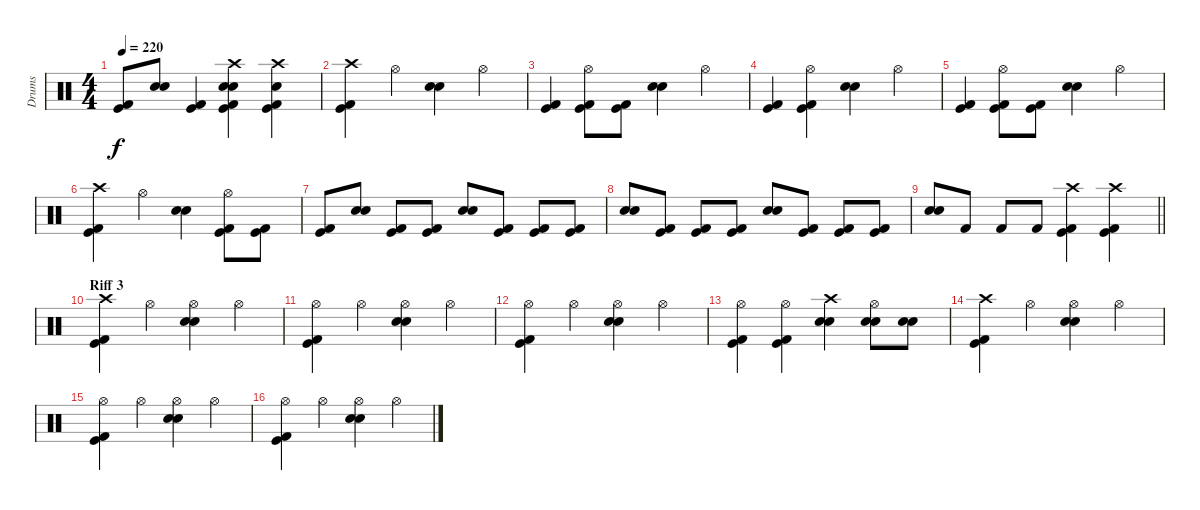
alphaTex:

\track ("Drums" "Drums") {instrument percussion}
\staff {score}
\articulation defaults
\ts (4 4)
\tempo 220
\clef neutral
\ks c
("Kick (hit) 2" "Kick (hit)").8{dy f} ("Electric Snare (hit)" "Snare (hit) 2").8 ("Kick (hit) 2" "Kick (hit)").4 ("Crash high (hit)" "Snare (hit) 2" "Electric Snare (hit)" "Kick (hit) 2" "Kick (hit)").4 ("Crash high (hit)" "Snare (hit) 2" "Kick (hit) 2" "Kick (hit)").4 |
("Crash high (hit)" "Kick (hit) 2" "Kick (hit)").4 "Hi-Hat (open)".4 ("Electric Snare (hit)" "Snare (hit) 2").4 "Hi-Hat (open)".4 |
("Kick (hit) 2" "Kick (hit)").4 ("Hi-Hat (open)" "Kick (hit) 2" "Kick (hit)").8 ("Kick (hit) 2" "Kick (hit)").8 ("Electric Snare (hit)" "Snare (hit) 2").4 "Hi-Hat (open)".4 |
("Kick (hit) 2" "Kick (hit)").4 ("Hi-Hat (open)" "Kick (hit) 2" "Kick (hit)").4 ("Electric Snare (hit)" "Snare (hit) 2").4 "Hi-Hat (open)".4 |
("Kick (hit) 2" "Kick (hit)").4 ("Hi-Hat (open)" "Kick (hit) 2" "Kick (hit)").8 ("Kick (hit) 2" "Kick (hit)").8 ("Electric Snare (hit)" "Snare (hit) 2").4 "Hi-Hat (open)".4 |
("Crash high (hit)" "Kick (hit) 2" "Kick (hit)").4 "Hi-Hat (open)".4 ("Electric Snare (hit)" "Snare (hit) 2").4 ("Hi-Hat (open)" "Kick (hit) 2" "Kick (hit)").8 ("Kick (hit) 2" "Kick (hit)").8 |
("Kick (hit) 2" "Kick (hit)").8 ("Electric Snare (hit)" "Snare (hit) 2").8 ("Kick (hit) 2" "Kick (hit)").8 ("Kick (hit) 2" "Kick (hit)").8 ("Electric Snare (hit)" "Snare (hit) 2").8 ("Kick (hit) 2" "Kick (hit)").8 ("Kick (hit) 2" "Kick (hit)").8 ("Kick (hit) 2" "Kick (hit)").8 |
("Electric Snare (hit)" "Snare (hit) 2").8 ("Kick (hit) 2" "Kick (hit)").8 ("Kick (hit) 2" "Kick (hit)").8 ("Kick (hit) 2" "Kick (hit)").8 ("Electric Snare (hit)" "Snare (hit) 2").8 ("Kick (hit) 2" "Kick (hit)").8 ("Kick (hit) 2" "Kick (hit)").8 ("Kick (hit) 2" "Kick (hit)").8 |
\barLineRight lightlight
("Electric Snare (hit)" "Snare (hit) 2").8 "Kick (hit) 2".8 "Kick (hit) 2".8 "Kick (hit) 2".8 ("Crash high (hit)" "Kick (hit) 2" "Kick (hit)").4 ("Crash high (hit)" "Kick (hit) 2" "Kick (hit)").4 |
\section ("" "Riff 3")
("Crash high (hit)" "Kick (hit) 2" "Kick (hit)").4 "Hi-Hat (open)".4 ("Hi-Hat (open)" "Electric Snare (hit)" "Snare (hit) 2").4 "Hi-Hat (open)".4 |
("Hi-Hat (open)" "Kick (hit) 2" "Kick (hit)").4 "Hi-Hat (open)".4 ("Hi-Hat (open)" "Electric Snare (hit)" "Snare (hit) 2").4 "Hi-Hat (open)".4 |
("Hi-Hat (open)" "Kick (hit) 2" "Kick (hit)").4 "Hi-Hat (open)".4 ("Hi-Hat (open)" "Electric Snare (hit)" "Snare (hit) 2").4 "Hi-Hat (open)".4 |
("Hi-Hat (open)" "Kick (hit) 2" "Kick (hit)").4 ("Hi-Hat (open)" "Kick (hit) 2" "Kick (hit)").4 ("Crash high (hit)" "Electric Snare (hit)" "Snare (hit) 2").4 ("Hi-Hat (open)" "Electric Snare (hit)" "Snare (hit) 2").8 ("Electric Snare (hit)" "Snare (hit) 2").8 |
("Crash high (hit)" "Kick (hit) 2" "Kick (hit)").4 "Hi-Hat (open)".4 ("Hi-Hat (open)" "Electric Snare (hit)" "Snare (hit) 2").4 "Hi-Hat (open)".4 |
("Hi-Hat (open)" "Kick (hit) 2" "Kick (hit)").4 "Hi-Hat (open)".4 ("Hi-Hat (open)" "Electric Snare (hit)" "Snare (hit) 2").4 "Hi-Hat (open)".4 |
("Hi-Hat (open)" "Kick (hit) 2" "Kick (hit)").4 "Hi-Hat (open)".4 ("Hi-Hat (open)" "Electric Snare (hit)" "Snare (hit) 2").4 "Hi-Hat (open)".4
